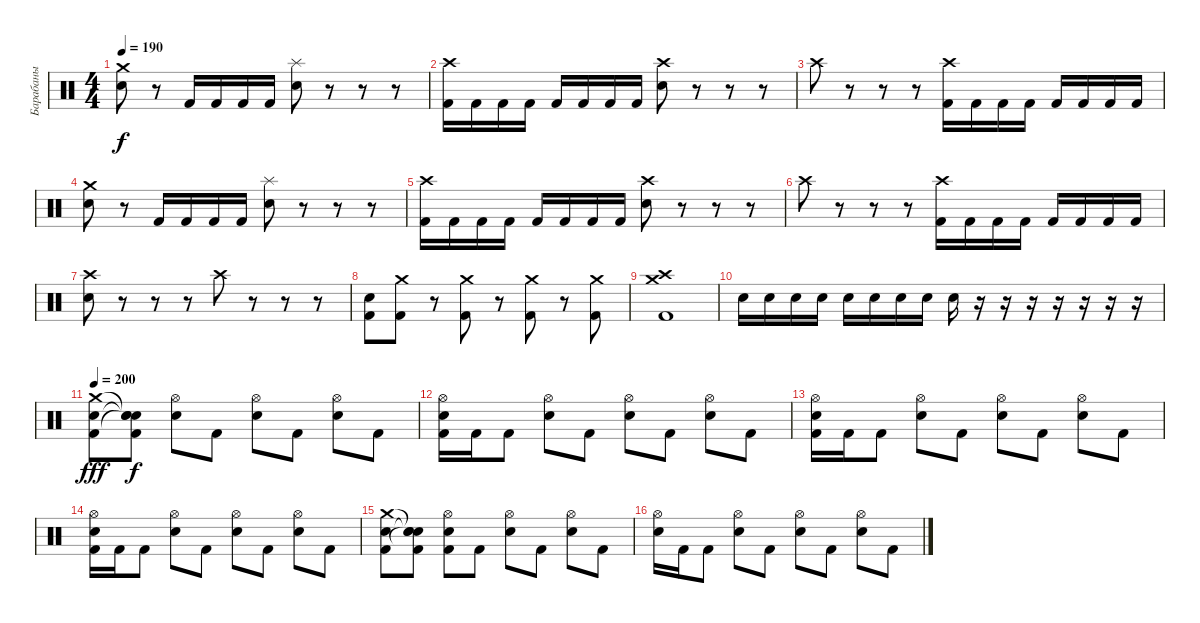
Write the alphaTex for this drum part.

\track ("Барабаны" "Барабаны") {instrument percussion}
\staff {score}
\articulation defaults
\ts (4 4)
\tempo 190
\clef neutral
\ks c
("Crash medium (hit)" "Snare (hit) 2").8{dy f} r.8 "Kick (hit) 2".16 "Kick (hit) 2".16 "Kick (hit) 2".16 "Kick (hit) 2".16 ("Splash (hit)" "Snare (hit) 2").8 r.8 r.8 r.8 |
("Crash high (hit)" "Kick (hit) 2").16 "Kick (hit) 2".16 "Kick (hit) 2".16 "Kick (hit) 2".16 "Kick (hit) 2".16 "Kick (hit) 2".16 "Kick (hit) 2".16 "Kick (hit) 2".16 ("Crash high (hit)" "Snare (hit) 2").8 r.8 r.8 r.8 |
"Crash high (hit)".8 r.8 r.8 r.8 ("Crash high (hit)" "Kick (hit) 2").16 "Kick (hit) 2".16 "Kick (hit) 2".16 "Kick (hit) 2".16 "Kick (hit) 2".16 "Kick (hit) 2".16 "Kick (hit) 2".16 "Kick (hit) 2".16 |
("Crash medium (hit)" "Snare (hit) 2").8 r.8 "Kick (hit) 2".16 "Kick (hit) 2".16 "Kick (hit) 2".16 "Kick (hit) 2".16 ("Splash (hit)" "Snare (hit) 2").8 r.8 r.8 r.8 |
("Crash high (hit)" "Kick (hit) 2").16 "Kick (hit) 2".16 "Kick (hit) 2".16 "Kick (hit) 2".16 "Kick (hit) 2".16 "Kick (hit) 2".16 "Kick (hit) 2".16 "Kick (hit) 2".16 ("Crash high (hit)" "Snare (hit) 2").8 r.8 r.8 r.8 |
"Crash high (hit)".8 r.8 r.8 r.8 ("Crash high (hit)" "Kick (hit) 2").16 "Kick (hit) 2".16 "Kick (hit) 2".16 "Kick (hit) 2".16 "Kick (hit) 2".16 "Kick (hit) 2".16 "Kick (hit) 2".16 "Kick (hit) 2".16 |
("Crash high (hit)" "Snare (hit) 2").8 r.8 r.8 r.8 "Crash high (hit)".8 r.8 r.8 r.8 |
("Snare (hit) 2" "Kick (hit) 2").8 ("Crash medium (hit)" "Kick (hit) 2").8 r.8 ("Crash medium (hit)" "Kick (hit) 2").8 r.8 ("Crash medium (hit)" "Kick (hit) 2").8 r.8 ("Crash medium (hit)" "Kick (hit) 2").8 |
("Crash high (hit)" "Crash medium (hit)" "Kick (hit) 2").1 |
"Snare (hit) 2".16 "Snare (hit) 2".16 "Snare (hit) 2".16 "Snare (hit) 2".16 "Snare (hit) 2".16 "Snare (hit) 2".16 "Snare (hit) 2".16 "Snare (hit) 2".16 "Snare (hit) 2".16 r.16 r.16 r.16 r.16 r.16 r.16 r.16 |
\tempo 200
("Crash medium (hit)" "Electric Snare (hit)" "Kick (hit) 2").8{dy fff} ("Snare (hit)"{t} "Snare (hit)"{t} "Snare (hit)"{t} "Kick (hit) 2").8{dy f} ("Hi-Hat (open)" "Electric Snare (hit)").8 "Kick (hit) 2".8 ("Hi-Hat (open)" "Electric Snare (hit)").8 "Kick (hit) 2".8 ("Hi-Hat (open)" "Electric Snare (hit)").8 "Kick (hit) 2".8 |
("Hi-Hat (open)" "Electric Snare (hit)" "Kick (hit) 2").16 "Kick (hit) 2".16 "Kick (hit) 2".8 ("Hi-Hat (open)" "Electric Snare (hit)").8 "Kick (hit) 2".8 ("Hi-Hat (open)" "Electric Snare (hit)").8 "Kick (hit) 2".8 ("Hi-Hat (open)" "Electric Snare (hit)").8 "Kick (hit) 2".8 |
("Hi-Hat (open)" "Electric Snare (hit)" "Kick (hit) 2").16 "Kick (hit) 2".16 "Kick (hit) 2".8 ("Hi-Hat (open)" "Electric Snare (hit)").8 "Kick (hit) 2".8 ("Hi-Hat (open)" "Electric Snare (hit)").8 "Kick (hit) 2".8 ("Hi-Hat (open)" "Electric Snare (hit)").8 "Kick (hit) 2".8 |
("Hi-Hat (open)" "Electric Snare (hit)" "Kick (hit) 2").16 "Kick (hit) 2".16 "Kick (hit) 2".8 ("Hi-Hat (open)" "Electric Snare (hit)").8 "Kick (hit) 2".8 ("Hi-Hat (open)" "Electric Snare (hit)").8 "Kick (hit) 2".8 ("Hi-Hat (open)" "Electric Snare (hit)").8 "Kick (hit) 2".8 |
("Crash medium (hit)" "Electric Snare (hit)" "Kick (hit) 2").8 ("Snare (hit)"{t} "Snare (hit)"{t} "Snare (hit)"{t} "Kick (hit) 2").8 ("Hi-Hat (open)" "Electric Snare (hit)" "Kick (hit) 2").8 "Kick (hit) 2".8 ("Hi-Hat (open)" "Electric Snare (hit)").8 "Kick (hit) 2".8 ("Hi-Hat (open)" "Electric Snare (hit)").8 "Kick (hit) 2".8 |
("Hi-Hat (open)" "Electric Snare (hit)").16 "Kick (hit) 2".16 "Kick (hit) 2".8 ("Hi-Hat (open)" "Electric Snare (hit)").8 "Kick (hit) 2".8 ("Hi-Hat (open)" "Electric Snare (hit)").8 "Kick (hit) 2".8 ("Hi-Hat (open)" "Electric Snare (hit)").8 "Kick (hit) 2".8
